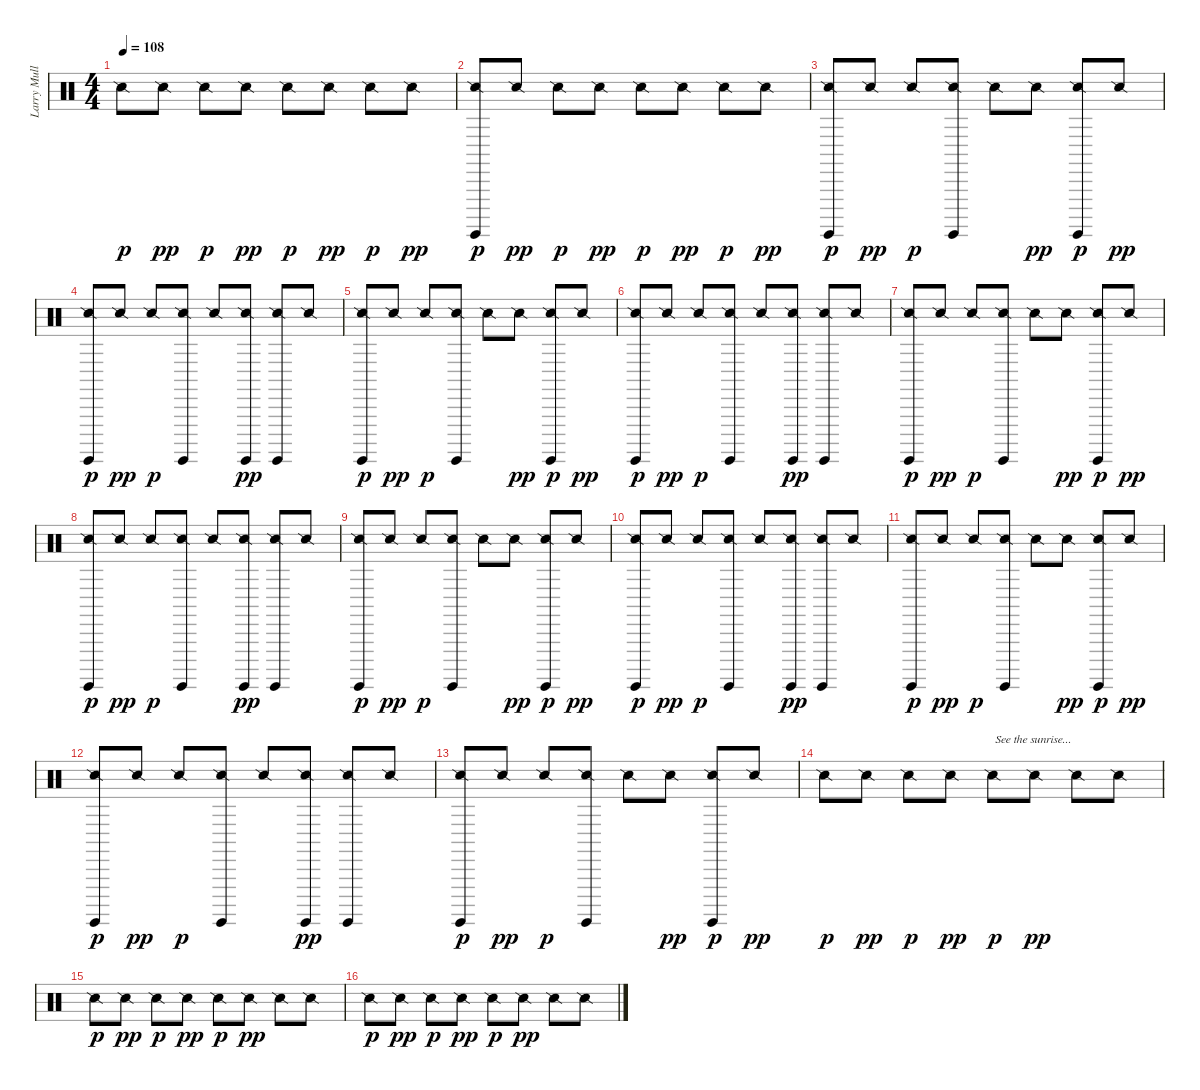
\track ("Larry Mullen Jr." "Larry Mull") {instrument percussion}
\staff {score}
\articulation defaults
\ts (4 4)
\tempo 108
\clef neutral
\ks c "Snare (side stick) 2".8{dy p} "Snare (side stick) 2".8{dy pp} "Snare (side stick) 2".8{dy p} "Snare (side stick) 2".8{dy pp} "Snare (side stick) 2".8{dy p} "Snare (side stick) 2".8{dy pp} "Snare (side stick) 2".8{dy p} "Snare (side stick) 2".8{dy pp}
|
("Snare (side stick) 2" "Surdo (hit)").8{dy p} "Snare (side stick) 2".8{dy pp} "Snare (side stick) 2".8{dy p} "Snare (side stick) 2".8{dy pp} "Snare (side stick) 2".8{dy p} "Snare (side stick) 2".8{dy pp} "Snare (side stick) 2".8{dy p} "Snare (side stick) 2".8{dy pp} |
("Snare (side stick) 2" "Surdo (hit)").8{dy p} "Snare (side stick) 2".8{dy pp} "Snare (side stick) 2".8{dy p} ("Snare (side stick) 2" "Surdo (hit)").8 "Snare (side stick) 2".8 "Snare (side stick) 2".8{dy pp} ("Snare (side stick) 2" "Surdo (hit)").8{dy p} "Snare (side stick) 2".8{dy pp} |
("Snare (side stick) 2" "Surdo (hit)").8{dy p} "Snare (side stick) 2".8{dy pp} "Snare (side stick) 2".8{dy p} ("Snare (side stick) 2" "Surdo (hit)").8 "Snare (side stick) 2".8 ("Snare (side stick) 2" "Surdo (hit)").8{dy pp} ("Snare (side stick) 2" "Surdo (hit)").8 "Snare (side stick) 2".8 |
("Snare (side stick) 2" "Surdo (hit)").8{dy p} "Snare (side stick) 2".8{dy pp} "Snare (side stick) 2".8{dy p} ("Snare (side stick) 2" "Surdo (hit)").8 "Snare (side stick) 2".8 "Snare (side stick) 2".8{dy pp} ("Snare (side stick) 2" "Surdo (hit)").8{dy p} "Snare (side stick) 2".8{dy pp} |
("Snare (side stick) 2" "Surdo (hit)").8{dy p} "Snare (side stick) 2".8{dy pp} "Snare (side stick) 2".8{dy p} ("Snare (side stick) 2" "Surdo (hit)").8 "Snare (side stick) 2".8 ("Snare (side stick) 2" "Surdo (hit)").8{dy pp} ("Snare (side stick) 2" "Surdo (hit)").8 "Snare (side stick) 2".8 |
("Snare (side stick) 2" "Surdo (hit)").8{dy p} "Snare (side stick) 2".8{dy pp} "Snare (side stick) 2".8{dy p} ("Snare (side stick) 2" "Surdo (hit)").8 "Snare (side stick) 2".8 "Snare (side stick) 2".8{dy pp} ("Snare (side stick) 2" "Surdo (hit)").8{dy p} "Snare (side stick) 2".8{dy pp} |
("Snare (side stick) 2" "Surdo (hit)").8{dy p} "Snare (side stick) 2".8{dy pp} "Snare (side stick) 2".8{dy p} ("Snare (side stick) 2" "Surdo (hit)").8 "Snare (side stick) 2".8 ("Snare (side stick) 2" "Surdo (hit)").8{dy pp} ("Snare (side stick) 2" "Surdo (hit)").8 "Snare (side stick) 2".8 |
("Snare (side stick) 2" "Surdo (hit)").8{dy p} "Snare (side stick) 2".8{dy pp} "Snare (side stick) 2".8{dy p} ("Snare (side stick) 2" "Surdo (hit)").8 "Snare (side stick) 2".8 "Snare (side stick) 2".8{dy pp} ("Snare (side stick) 2" "Surdo (hit)").8{dy p} "Snare (side stick) 2".8{dy pp} |
("Snare (side stick) 2" "Surdo (hit)").8{dy p} "Snare (side stick) 2".8{dy pp} "Snare (side stick) 2".8{dy p} ("Snare (side stick) 2" "Surdo (hit)").8 "Snare (side stick) 2".8 ("Snare (side stick) 2" "Surdo (hit)").8{dy pp} ("Snare (side stick) 2" "Surdo (hit)").8 "Snare (side stick) 2".8 |
("Snare (side stick) 2" "Surdo (hit)").8{dy p} "Snare (side stick) 2".8{dy pp} "Snare (side stick) 2".8{dy p} ("Snare (side stick) 2" "Surdo (hit)").8 "Snare (side stick) 2".8 "Snare (side stick) 2".8{dy pp} ("Snare (side stick) 2" "Surdo (hit)").8{dy p} "Snare (side stick) 2".8{dy pp} |
("Snare (side stick) 2" "Surdo (hit)").8{dy p} "Snare (side stick) 2".8{dy pp} "Snare (side stick) 2".8{dy p} ("Snare (side stick) 2" "Surdo (hit)").8 "Snare (side stick) 2".8 ("Snare (side stick) 2" "Surdo (hit)").8{dy pp} ("Snare (side stick) 2" "Surdo (hit)").8 "Snare (side stick) 2".8 |
("Snare (side stick) 2" "Surdo (hit)").8{dy p} "Snare (side stick) 2".8{dy pp} "Snare (side stick) 2".8{dy p} ("Snare (side stick) 2" "Surdo (hit)").8 "Snare (side stick) 2".8 "Snare (side stick) 2".8{dy pp} ("Snare (side stick) 2" "Surdo (hit)").8{dy p} "Snare (side stick) 2".8{dy pp} |
"Snare (side stick) 2".8{dy p} "Snare (side stick) 2".8{dy pp} "Snare (side stick) 2".8{dy p} "Snare (side stick) 2".8{dy pp} "Snare (side stick) 2".8{txt "See the sunrise..." dy p} "Snare (side stick) 2".8{dy pp} "Snare (side stick) 2".8 "Snare (side stick) 2".8 |
"Snare (side stick) 2".8{dy p} "Snare (side stick) 2".8{dy pp} "Snare (side stick) 2".8{dy p} "Snare (side stick) 2".8{dy pp} "Snare (side stick) 2".8{dy p} "Snare (side stick) 2".8{dy pp} "Snare (side stick) 2".8 "Snare (side stick) 2".8 |
"Snare (side stick) 2".8{dy p} "Snare (side stick) 2".8{dy pp} "Snare (side stick) 2".8{dy p} "Snare (side stick) 2".8{dy pp} "Snare (side stick) 2".8{dy p} "Snare (side stick) 2".8{dy pp} "Snare (side stick) 2".8 "Snare (side stick) 2".8
